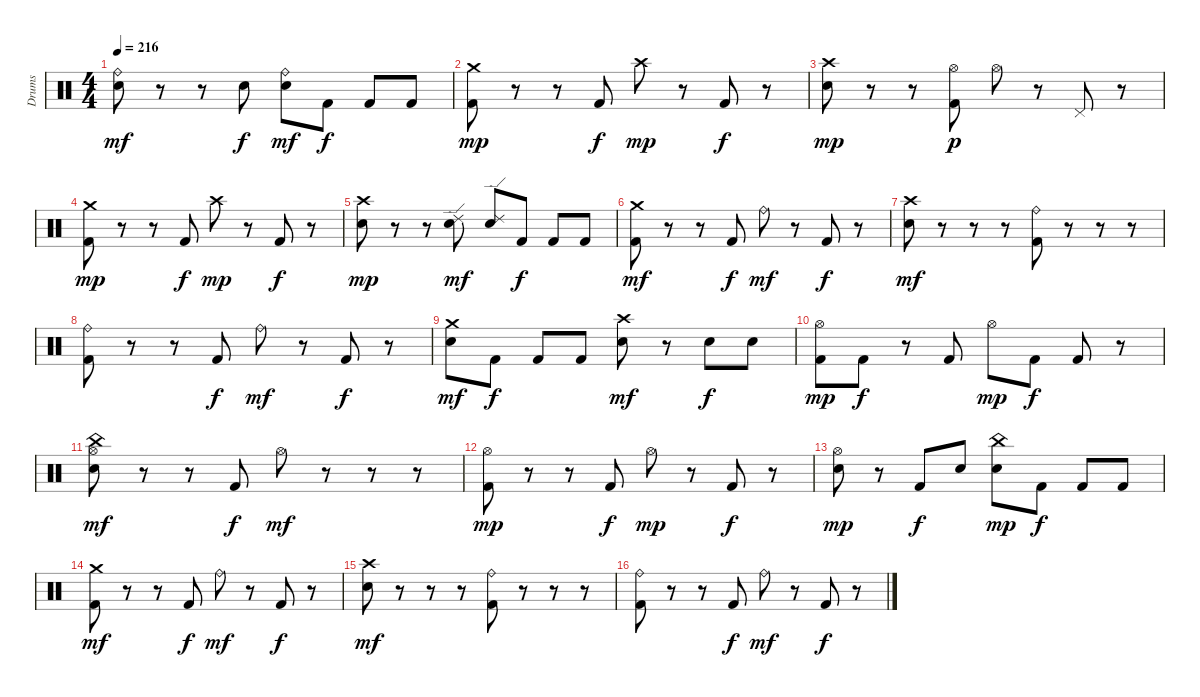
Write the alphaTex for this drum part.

\track ("Drums" "Drums") {instrument percussion}
\staff {score}
\articulation defaults
\ts (4 4)
\tempo 216
\clef neutral
\ks c
("Snare (hit) 2" "Ride (bell)").8{dy mf} r.8 r.8 "Snare (hit) 2".8{dy f} ("Snare (hit) 2" "Ride (bell)").8{dy mf} "Kick (hit) 2".8{dy f} "Kick (hit) 2".8 "Kick (hit) 2".8 |
("Kick (hit) 2" "Crash medium (hit)").8{dy mp} r.8 r.8 "Kick (hit) 2".8{dy f} "Crash high (hit)".8{dy mp} r.8 "Kick (hit) 2".8{dy f} r.8 |
("Snare (hit) 2" "Crash high (hit)").8{dy mp} r.8 r.8 ("Kick (hit) 2" "Hi-Hat (open)").8{dy p} "Hi-Hat (open)".8 r.8 "Pedal Hi-Hat (hit)".8 r.8 |
("Kick (hit) 2" "Crash medium (hit)").8{dy mp} r.8 r.8 "Kick (hit) 2".8{dy f} "Crash high (hit)".8{dy mp} r.8 "Kick (hit) 2".8{dy f} r.8 |
("Snare (hit) 2" "Crash high (hit)").8{dy mp} r.8 r.8 ("Snare (hit) 2" "Ride (edge) 2").8{dy mf} ("Snare (hit) 2" "Ride (edge) 2").8 "Kick (hit) 2".8{dy f} "Kick (hit) 2".8 "Kick (hit) 2".8 |
("Kick (hit) 2" "Crash medium (hit)").8{dy mf} r.8 r.8 "Kick (hit) 2".8{dy f} "Ride (bell)".8{dy mf} r.8 "Kick (hit) 2".8{dy f} r.8 |
("Snare (hit) 2" "Crash high (hit)").8{dy mf} r.8 r.8 r.8 ("Kick (hit) 2" "Ride (bell)").8 r.8 r.8 r.8 |
("Kick (hit) 2" "Ride (bell)").8 r.8 r.8 "Kick (hit) 2".8{dy f} "Ride (bell)".8{dy mf} r.8 "Kick (hit) 2".8{dy f} r.8 |
("Snare (hit) 2" "Crash medium (hit)").8{dy mf} "Kick (hit) 2".8{dy f} "Kick (hit) 2".8 "Kick (hit) 2".8 ("Snare (hit) 2" "Crash high (hit)").8{dy mf} r.8 "Snare (hit) 2".8{dy f} "Snare (hit) 2".8 |
("Kick (hit) 2" "Hi-Hat (open)").8{dy mp} "Kick (hit) 2".8{dy f} r.8 "Kick (hit) 2".8 "Hi-Hat (open)".8{dy mp} "Kick (hit) 2".8{dy f} "Kick (hit) 2".8 r.8 |
("Snare (hit) 2" "Hi-Hat (open)" "China (hit)").8{dy mf} r.8 r.8 "Kick (hit) 2".8{dy f} "Hi-Hat (open)".8{dy mf} r.8 r.8 r.8 |
("Kick (hit) 2" "Hi-Hat (open)").8{dy mp} r.8 r.8 "Kick (hit) 2".8{dy f} "Hi-Hat (open)".8{dy mp} r.8 "Kick (hit) 2".8{dy f} r.8 |
("Snare (hit) 2" "Hi-Hat (open)").8{dy mp} r.8 "Kick (hit) 2".8{dy f} "Snare (hit) 2".8 ("Snare (hit) 2" "China (hit)").8{dy mp} "Kick (hit) 2".8{dy f} "Kick (hit) 2".8 "Kick (hit) 2".8 |
("Kick (hit) 2" "Crash medium (hit)").8{dy mf} r.8 r.8 "Kick (hit) 2".8{dy f} "Ride (bell)".8{dy mf} r.8 "Kick (hit) 2".8{dy f} r.8 |
("Snare (hit) 2" "Crash high (hit)").8{dy mf} r.8 r.8 r.8 ("Kick (hit) 2" "Ride (bell)").8 r.8 r.8 r.8 |
("Kick (hit) 2" "Ride (bell)").8 r.8 r.8 "Kick (hit) 2".8{dy f} "Ride (bell)".8{dy mf} r.8 "Kick (hit) 2".8{dy f} r.8
